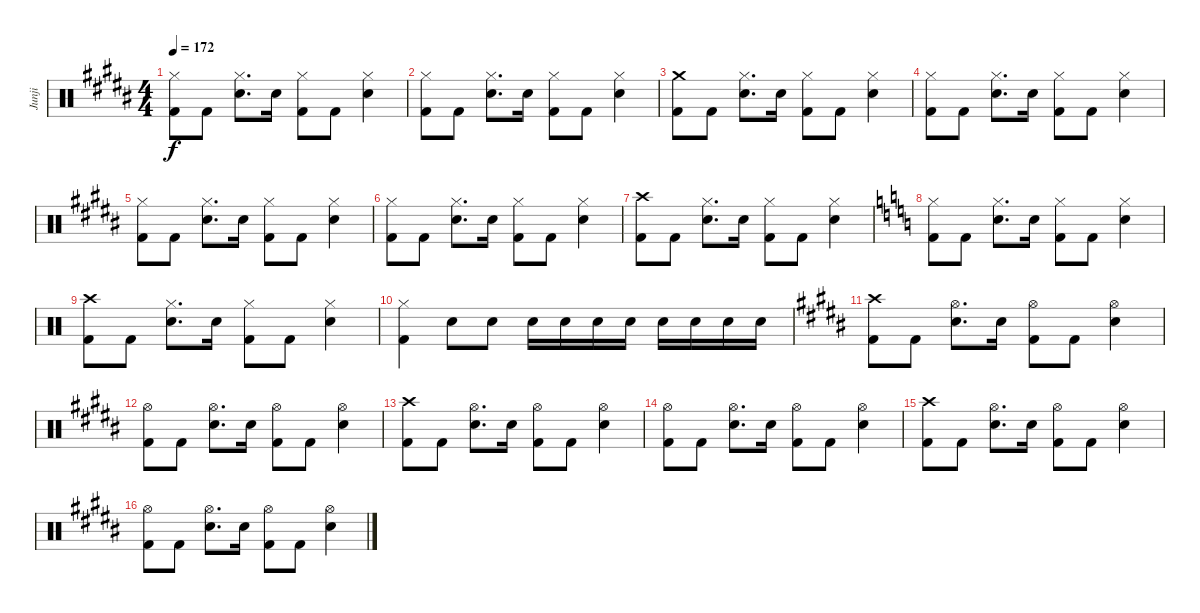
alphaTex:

\track ("Junji" "Junji") {instrument percussion}
\staff {score}
\articulation defaults
\ts (4 4)
\tempo 172
\clef neutral
\ks b
("Hi-Hat (closed)" "Kick (hit) 2").8{dy f} "Kick (hit) 2".8 ("Hi-Hat (closed)" "Snare (hit) 2").8{d} "Snare (hit) 2".16 ("Hi-Hat (closed)" "Kick (hit) 2").8 "Kick (hit) 2".8 ("Hi-Hat (closed)" "Snare (hit) 2").4 |
("Hi-Hat (closed)" "Kick (hit) 2").8 "Kick (hit) 2".8 ("Hi-Hat (closed)" "Snare (hit) 2").8{d} "Snare (hit) 2".16 ("Hi-Hat (closed)" "Kick (hit) 2").8 "Kick (hit) 2".8 ("Hi-Hat (closed)" "Snare (hit) 2").4 |
("Crash medium (hit)" "Kick (hit) 2").8 "Kick (hit) 2".8 ("Hi-Hat (closed)" "Snare (hit) 2").8{d} "Snare (hit) 2".16 ("Hi-Hat (closed)" "Kick (hit) 2").8 "Kick (hit) 2".8 ("Hi-Hat (closed)" "Snare (hit) 2").4 |
("Hi-Hat (closed)" "Kick (hit) 2").8 "Kick (hit) 2".8 ("Hi-Hat (closed)" "Snare (hit) 2").8{d} "Snare (hit) 2".16 ("Hi-Hat (closed)" "Kick (hit) 2").8 "Kick (hit) 2".8 ("Hi-Hat (closed)" "Snare (hit) 2").4 |
("Hi-Hat (closed)" "Kick (hit) 2").8 "Kick (hit) 2".8 ("Hi-Hat (closed)" "Snare (hit) 2").8{d} "Snare (hit) 2".16 ("Hi-Hat (closed)" "Kick (hit) 2").8 "Kick (hit) 2".8 ("Hi-Hat (closed)" "Snare (hit) 2").4 |
("Hi-Hat (closed)" "Kick (hit) 2").8 "Kick (hit) 2".8 ("Hi-Hat (closed)" "Snare (hit) 2").8{d} "Snare (hit) 2".16 ("Hi-Hat (closed)" "Kick (hit) 2").8 "Kick (hit) 2".8 ("Hi-Hat (closed)" "Snare (hit) 2").4 |
("Crash high (hit)" "Kick (hit) 2").8 "Kick (hit) 2".8 ("Hi-Hat (closed)" "Snare (hit) 2").8{d} "Snare (hit) 2".16 ("Hi-Hat (closed)" "Kick (hit) 2").8 "Kick (hit) 2".8 ("Hi-Hat (closed)" "Snare (hit) 2").4 |
\ks c
("Hi-Hat (closed)" "Kick (hit) 2").8 "Kick (hit) 2".8 ("Hi-Hat (closed)" "Snare (hit) 2").8{d} "Snare (hit) 2".16 ("Hi-Hat (closed)" "Kick (hit) 2").8 "Kick (hit) 2".8 ("Hi-Hat (closed)" "Snare (hit) 2").4 |
("Crash high (hit)" "Kick (hit) 2").8 "Kick (hit) 2".8 ("Hi-Hat (closed)" "Snare (hit) 2").8{d} "Snare (hit) 2".16 ("Hi-Hat (closed)" "Kick (hit) 2").8 "Kick (hit) 2".8 ("Hi-Hat (closed)" "Snare (hit) 2").4 |
("Hi-Hat (closed)" "Kick (hit) 2").4 "Snare (hit) 2".8 "Snare (hit) 2".8 "Snare (hit) 2".16 "Snare (hit) 2".16 "Snare (hit) 2".16 "Snare (hit) 2".16 "Snare (hit) 2".16 "Snare (hit) 2".16 "Snare (hit) 2".16 "Snare (hit) 2".16 |
\ks b
("Crash high (hit)" "Kick (hit) 2").8 "Kick (hit) 2".8 ("Hi-Hat (open)" "Snare (hit) 2").8{d} "Snare (hit) 2".16 ("Hi-Hat (open)" "Kick (hit) 2").8 "Kick (hit) 2".8 ("Hi-Hat (open)" "Snare (hit) 2").4 |
("Hi-Hat (open)" "Kick (hit) 2").8 "Kick (hit) 2".8 ("Hi-Hat (open)" "Snare (hit) 2").8{d} "Snare (hit) 2".16 ("Hi-Hat (open)" "Kick (hit) 2").8 "Kick (hit) 2".8 ("Hi-Hat (open)" "Snare (hit) 2").4 |
("Crash high (hit)" "Kick (hit) 2").8 "Kick (hit) 2".8 ("Hi-Hat (open)" "Snare (hit) 2").8{d} "Snare (hit) 2".16 ("Hi-Hat (open)" "Kick (hit) 2").8 "Kick (hit) 2".8 ("Hi-Hat (open)" "Snare (hit) 2").4 |
("Hi-Hat (open)" "Kick (hit) 2").8 "Kick (hit) 2".8 ("Hi-Hat (open)" "Snare (hit) 2").8{d} "Snare (hit) 2".16 ("Hi-Hat (open)" "Kick (hit) 2").8 "Kick (hit) 2".8 ("Hi-Hat (open)" "Snare (hit) 2").4 |
("Crash high (hit)" "Kick (hit) 2").8 "Kick (hit) 2".8 ("Hi-Hat (open)" "Snare (hit) 2").8{d} "Snare (hit) 2".16 ("Hi-Hat (open)" "Kick (hit) 2").8 "Kick (hit) 2".8 ("Hi-Hat (open)" "Snare (hit) 2").4 |
("Hi-Hat (open)" "Kick (hit) 2").8 "Kick (hit) 2".8 ("Hi-Hat (open)" "Snare (hit) 2").8{d} "Snare (hit) 2".16 ("Hi-Hat (open)" "Kick (hit) 2").8 "Kick (hit) 2".8 ("Hi-Hat (open)" "Snare (hit) 2").4
